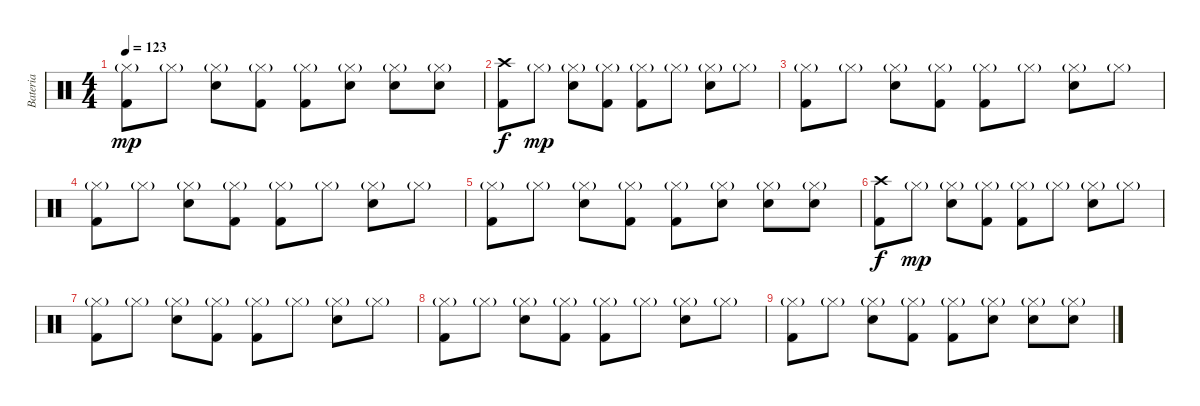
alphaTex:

\track ("Bateria" "Bateria") {instrument percussion}
\staff {score}
\articulation defaults
\ts (4 4)
\tempo 123
\clef neutral
\ks c
("Hi-Hat (closed)"{g} "Kick (hit) 2").8{dy mp} "Hi-Hat (closed)"{g}.8 ("Hi-Hat (closed)"{g} "Snare (hit) 2").8 ("Hi-Hat (closed)"{g} "Kick (hit) 2").8 ("Hi-Hat (closed)"{g} "Kick (hit) 2").8 ("Hi-Hat (closed)"{g} "Snare (hit) 2").8 ("Hi-Hat (closed)"{g} "Snare (hit) 2").8 ("Hi-Hat (closed)"{g} "Snare (hit) 2").8 |
("Crash high (hit)" "Kick (hit) 2").8{dy f volume 2} "Hi-Hat (closed)"{g}.8{dy mp} ("Hi-Hat (closed)"{g} "Snare (hit) 2").8 ("Hi-Hat (closed)"{g} "Kick (hit) 2").8 ("Hi-Hat (closed)"{g} "Kick (hit) 2").8 "Hi-Hat (closed)"{g}.8 ("Hi-Hat (closed)"{g} "Snare (hit) 2").8 "Hi-Hat (closed)"{g}.8 |
("Hi-Hat (closed)"{g} "Kick (hit) 2").8 "Hi-Hat (closed)"{g}.8 ("Hi-Hat (closed)"{g} "Snare (hit) 2").8 ("Hi-Hat (closed)"{g} "Kick (hit) 2").8 ("Hi-Hat (closed)"{g} "Kick (hit) 2").8 "Hi-Hat (closed)"{g}.8 ("Hi-Hat (closed)"{g} "Snare (hit) 2").8 "Hi-Hat (closed)"{g}.8 |
("Hi-Hat (closed)"{g} "Kick (hit) 2").8 "Hi-Hat (closed)"{g}.8 ("Hi-Hat (closed)"{g} "Snare (hit) 2").8 ("Hi-Hat (closed)"{g} "Kick (hit) 2").8 ("Hi-Hat (closed)"{g} "Kick (hit) 2").8 "Hi-Hat (closed)"{g}.8 ("Hi-Hat (closed)"{g} "Snare (hit) 2").8 "Hi-Hat (closed)"{g}.8 |
("Hi-Hat (closed)"{g} "Kick (hit) 2").8 "Hi-Hat (closed)"{g}.8 ("Hi-Hat (closed)"{g} "Snare (hit) 2").8 ("Hi-Hat (closed)"{g} "Kick (hit) 2").8 ("Hi-Hat (closed)"{g} "Kick (hit) 2").8 ("Hi-Hat (closed)"{g} "Snare (hit) 2").8 ("Hi-Hat (closed)"{g} "Snare (hit) 2").8 ("Hi-Hat (closed)"{g} "Snare (hit) 2").8 |
("Crash high (hit)" "Kick (hit) 2").8{dy f volume 0} "Hi-Hat (closed)"{g}.8{dy mp} ("Hi-Hat (closed)"{g} "Snare (hit) 2").8 ("Hi-Hat (closed)"{g} "Kick (hit) 2").8 ("Hi-Hat (closed)"{g} "Kick (hit) 2").8 "Hi-Hat (closed)"{g}.8 ("Hi-Hat (closed)"{g} "Snare (hit) 2").8 "Hi-Hat (closed)"{g}.8 |
("Hi-Hat (closed)"{g} "Kick (hit) 2").8 "Hi-Hat (closed)"{g}.8 ("Hi-Hat (closed)"{g} "Snare (hit) 2").8 ("Hi-Hat (closed)"{g} "Kick (hit) 2").8 ("Hi-Hat (closed)"{g} "Kick (hit) 2").8 "Hi-Hat (closed)"{g}.8 ("Hi-Hat (closed)"{g} "Snare (hit) 2").8 "Hi-Hat (closed)"{g}.8 |
("Hi-Hat (closed)"{g} "Kick (hit) 2").8 "Hi-Hat (closed)"{g}.8 ("Hi-Hat (closed)"{g} "Snare (hit) 2").8 ("Hi-Hat (closed)"{g} "Kick (hit) 2").8 ("Hi-Hat (closed)"{g} "Kick (hit) 2").8 "Hi-Hat (closed)"{g}.8 ("Hi-Hat (closed)"{g} "Snare (hit) 2").8 "Hi-Hat (closed)"{g}.8 |
("Hi-Hat (closed)"{g} "Kick (hit) 2").8 "Hi-Hat (closed)"{g}.8 ("Hi-Hat (closed)"{g} "Snare (hit) 2").8 ("Hi-Hat (closed)"{g} "Kick (hit) 2").8 ("Hi-Hat (closed)"{g} "Kick (hit) 2").8 ("Hi-Hat (closed)"{g} "Snare (hit) 2").8 ("Hi-Hat (closed)"{g} "Snare (hit) 2").8 ("Hi-Hat (closed)"{g} "Snare (hit) 2").8
